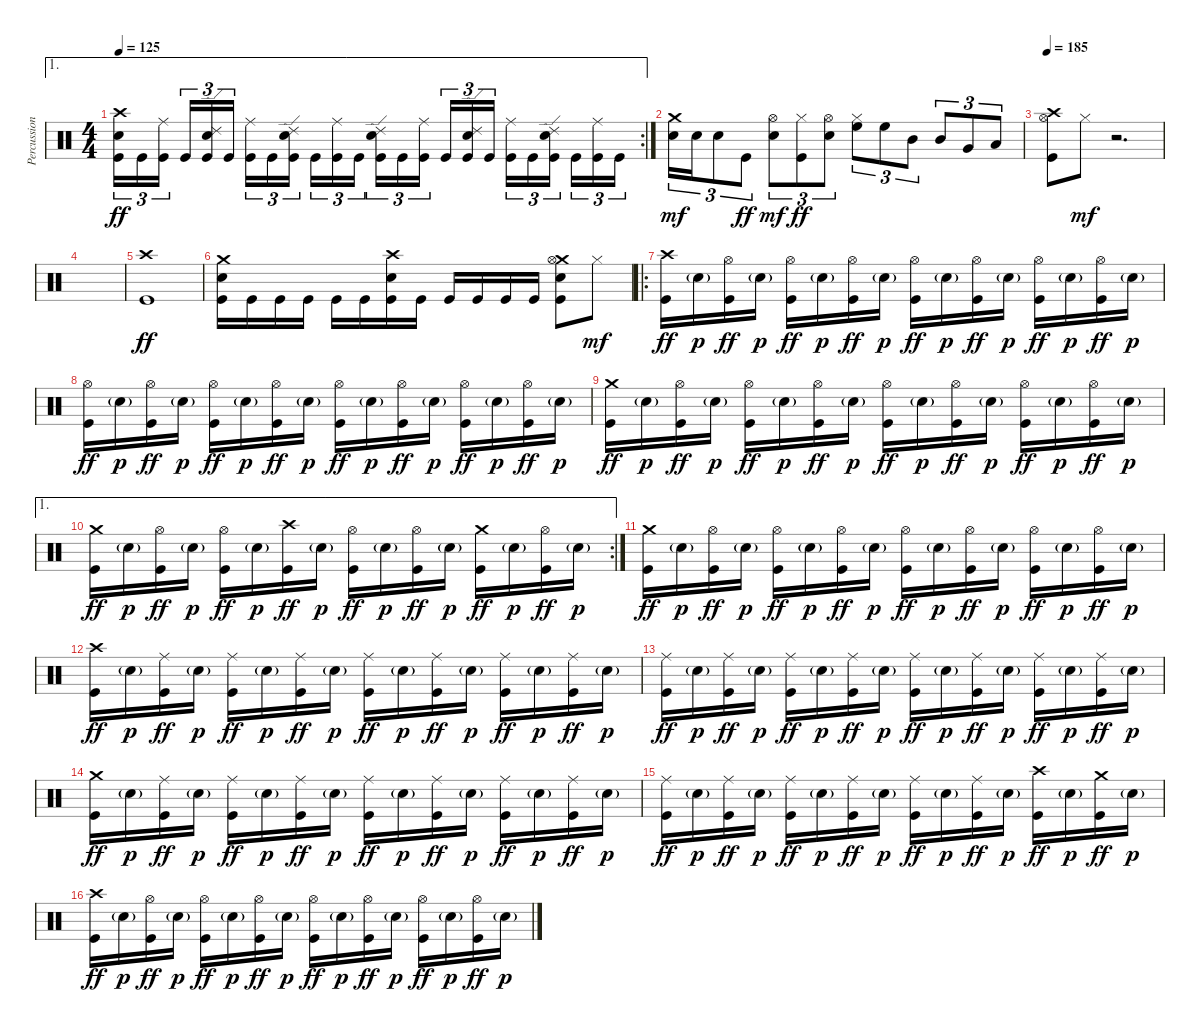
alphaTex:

\track ("Percussion" "Percussion") {instrument percussion}
\staff {score}
\articulation defaults
\ae 1
\rc 2
\ts (4 4)
\tempo 125
\clef neutral
\ks c
("Crash high (hit)" "Electric Snare (hit)" "Kick (hit)").16{tu (3 2) dy ff} "Kick (hit)".16{tu (3 2)} ("Ride (middle)" "Kick (hit)").16{tu (3 2) beam splitsecondary} "Kick (hit)".16{tu (3 2)} ("Ride (edge) 2" "Electric Snare (hit)" "Kick (hit)").16{tu (3 2)} "Kick (hit)".16{tu (3 2)} ("Ride (middle)" "Kick (hit)").16{tu (3 2)} "Kick (hit)".16{tu (3 2)} ("Ride (edge) 2" "Electric Snare (hit)" "Kick (hit)").16{tu (3 2) beam splitsecondary} "Kick (hit)".16{tu (3 2)} ("Ride (middle)" "Kick (hit)").16{tu (3 2)} "Kick (hit)".16{tu (3 2)} ("Ride (edge) 2" "Electric Snare (hit)" "Kick (hit)").16{tu (3 2)} "Kick (hit)".16{tu (3 2)} ("Ride (middle)" "Kick (hit)").16{tu (3 2) beam splitsecondary} "Kick (hit)".16{tu (3 2)} ("Ride (edge) 2" "Electric Snare (hit)" "Kick (hit)").16{tu (3 2)} "Kick (hit)".16{tu (3 2)} ("Ride (middle)" "Kick (hit)").16{tu (3 2)} "Kick (hit)".16{tu (3 2)} ("Ride (edge) 2" "Electric Snare (hit)" "Kick (hit)").16{tu (3 2) beam splitsecondary} "Kick (hit)".16{tu (3 2)} ("Ride (middle)" "Kick (hit)").16{tu (3 2)} "Kick (hit)".16{tu (3 2)} |
("Crash medium (hit)" "Electric Snare (hit)").16{tu (3 2) dy mf} "Electric Snare (hit)".16{tu (3 2)} "Electric Snare (hit)".8{tu (3 2)} "Kick (hit)".8{tu (3 2) dy ff} ("Hi-Hat (open)" "Electric Snare (hit)").8{tu (3 2) dy mf} ("Hi-Hat (closed)" "Kick (hit)").8{tu (3 2) dy ff} ("Hi-Hat (open)" "Electric Snare (hit)").8{tu (3 2)} ("Hi-Hat (closed)" "High Floor Tom (hit)").8{tu (3 2)} "High Floor Tom (hit)".8{tu (3 2)} "Mid Tom (hit)".8{tu (3 2)} "Mid Tom (hit)".8{tu (3 2)} "Very Low Tom (hit)".8{tu (3 2)} "Low Floor Tom (hit)".8{tu (3 2)} |
\tempo 185
("Crash high (hit)" "Hi-Hat (open)" "Kick (hit)").8 "Hi-Hat (closed)".8{dy mf} r.2{d} |
|
("Crash high (hit)" "Kick (hit)").1{dy ff} |
("Crash medium (hit)" "Electric Snare (hit)" "Kick (hit)").16 "Kick (hit)".16 "Kick (hit)".16 "Kick (hit)".16 "Kick (hit)".16 "Kick (hit)".16 ("Crash high (hit)" "Electric Snare (hit)" "Kick (hit)").16 "Kick (hit)".16 "Kick (hit)".16 "Kick (hit)".16 "Kick (hit)".16 "Kick (hit)".16 ("Crash medium (hit)" "Hi-Hat (open)" "Electric Snare (hit)" "Kick (hit)").8 "Hi-Hat (closed)".8{dy mf} |
\ro
("Crash high (hit)" "Kick (hit)").16{dy ff} "Electric Snare (hit)"{g}.16{dy p} ("Hi-Hat (open)" "Kick (hit)").16{dy ff} "Electric Snare (hit)"{g}.16{dy p} ("Hi-Hat (open)" "Kick (hit)").16{dy ff} "Electric Snare (hit)"{g}.16{dy p} ("Hi-Hat (open)" "Kick (hit)").16{dy ff} "Electric Snare (hit)"{g}.16{dy p} ("Hi-Hat (open)" "Kick (hit)").16{dy ff} "Electric Snare (hit)"{g}.16{dy p} ("Hi-Hat (open)" "Kick (hit)").16{dy ff} "Electric Snare (hit)"{g}.16{dy p} ("Hi-Hat (open)" "Kick (hit)").16{dy ff} "Electric Snare (hit)"{g}.16{dy p} ("Hi-Hat (open)" "Kick (hit)").16{dy ff} "Electric Snare (hit)"{g}.16{dy p} |
("Hi-Hat (open)" "Kick (hit)").16{dy ff} "Electric Snare (hit)"{g}.16{dy p} ("Hi-Hat (open)" "Kick (hit)").16{dy ff} "Electric Snare (hit)"{g}.16{dy p} ("Hi-Hat (open)" "Kick (hit)").16{dy ff} "Electric Snare (hit)"{g}.16{dy p} ("Hi-Hat (open)" "Kick (hit)").16{dy ff} "Electric Snare (hit)"{g}.16{dy p} ("Hi-Hat (open)" "Kick (hit)").16{dy ff} "Electric Snare (hit)"{g}.16{dy p} ("Hi-Hat (open)" "Kick (hit)").16{dy ff} "Electric Snare (hit)"{g}.16{dy p} ("Hi-Hat (open)" "Kick (hit)").16{dy ff} "Electric Snare (hit)"{g}.16{dy p} ("Hi-Hat (open)" "Kick (hit)").16{dy ff} "Electric Snare (hit)"{g}.16{dy p} |
("Crash medium (hit)" "Kick (hit)").16{dy ff} "Electric Snare (hit)"{g}.16{dy p} ("Hi-Hat (open)" "Kick (hit)").16{dy ff} "Electric Snare (hit)"{g}.16{dy p} ("Hi-Hat (open)" "Kick (hit)").16{dy ff} "Electric Snare (hit)"{g}.16{dy p} ("Hi-Hat (open)" "Kick (hit)").16{dy ff} "Electric Snare (hit)"{g}.16{dy p} ("Hi-Hat (open)" "Kick (hit)").16{dy ff} "Electric Snare (hit)"{g}.16{dy p} ("Hi-Hat (open)" "Kick (hit)").16{dy ff} "Electric Snare (hit)"{g}.16{dy p} ("Hi-Hat (open)" "Kick (hit)").16{dy ff} "Electric Snare (hit)"{g}.16{dy p} ("Hi-Hat (open)" "Kick (hit)").16{dy ff} "Electric Snare (hit)"{g}.16{dy p} |
\ae 1
\rc 2
("Crash medium (hit)" "Kick (hit)").16{dy ff} "Electric Snare (hit)"{g}.16{dy p} ("Hi-Hat (open)" "Kick (hit)").16{dy ff} "Electric Snare (hit)"{g}.16{dy p} ("Hi-Hat (open)" "Kick (hit)").16{dy ff} "Electric Snare (hit)"{g}.16{dy p} ("Crash high (hit)" "Kick (hit)").16{dy ff} "Electric Snare (hit)"{g}.16{dy p} ("Hi-Hat (open)" "Kick (hit)").16{dy ff} "Electric Snare (hit)"{g}.16{dy p} ("Hi-Hat (open)" "Kick (hit)").16{dy ff} "Electric Snare (hit)"{g}.16{dy p} ("Crash medium (hit)" "Kick (hit)").16{dy ff} "Electric Snare (hit)"{g}.16{dy p} ("Hi-Hat (open)" "Kick (hit)").16{dy ff} "Electric Snare (hit)"{g}.16{dy p} |
("Crash medium (hit)" "Kick (hit)").16{dy ff} "Electric Snare (hit)"{g}.16{dy p} ("Hi-Hat (open)" "Kick (hit)").16{dy ff} "Electric Snare (hit)"{g}.16{dy p} ("Hi-Hat (open)" "Kick (hit)").16{dy ff} "Electric Snare (hit)"{g}.16{dy p} ("Hi-Hat (open)" "Kick (hit)").16{dy ff} "Electric Snare (hit)"{g}.16{dy p} ("Hi-Hat (open)" "Kick (hit)").16{dy ff} "Electric Snare (hit)"{g}.16{dy p} ("Hi-Hat (open)" "Kick (hit)").16{dy ff} "Electric Snare (hit)"{g}.16{dy p} ("Hi-Hat (open)" "Kick (hit)").16{dy ff} "Electric Snare (hit)"{g}.16{dy p} ("Hi-Hat (open)" "Kick (hit)").16{dy ff} "Electric Snare (hit)"{g}.16{dy p} |
("Crash high (hit)" "Kick (hit)").16{dy ff} "Electric Snare (hit)"{g}.16{dy p} ("Ride (middle)" "Kick (hit)").16{dy ff} "Electric Snare (hit)"{g}.16{dy p} ("Ride (middle)" "Kick (hit)").16{dy ff} "Electric Snare (hit)"{g}.16{dy p} ("Ride (middle)" "Kick (hit)").16{dy ff} "Electric Snare (hit)"{g}.16{dy p} ("Ride (middle)" "Kick (hit)").16{dy ff} "Electric Snare (hit)"{g}.16{dy p} ("Ride (middle)" "Kick (hit)").16{dy ff} "Electric Snare (hit)"{g}.16{dy p} ("Ride (middle)" "Kick (hit)").16{dy ff} "Electric Snare (hit)"{g}.16{dy p} ("Ride (middle)" "Kick (hit)").16{dy ff} "Electric Snare (hit)"{g}.16{dy p} |
("Ride (middle)" "Kick (hit)").16{dy ff} "Electric Snare (hit)"{g}.16{dy p} ("Ride (middle)" "Kick (hit)").16{dy ff} "Electric Snare (hit)"{g}.16{dy p} ("Ride (middle)" "Kick (hit)").16{dy ff} "Electric Snare (hit)"{g}.16{dy p} ("Ride (middle)" "Kick (hit)").16{dy ff} "Electric Snare (hit)"{g}.16{dy p} ("Ride (middle)" "Kick (hit)").16{dy ff} "Electric Snare (hit)"{g}.16{dy p} ("Ride (middle)" "Kick (hit)").16{dy ff} "Electric Snare (hit)"{g}.16{dy p} ("Ride (middle)" "Kick (hit)").16{dy ff} "Electric Snare (hit)"{g}.16{dy p} ("Ride (middle)" "Kick (hit)").16{dy ff} "Electric Snare (hit)"{g}.16{dy p} |
("Crash medium (hit)" "Kick (hit)").16{dy ff} "Electric Snare (hit)"{g}.16{dy p} ("Ride (middle)" "Kick (hit)").16{dy ff} "Electric Snare (hit)"{g}.16{dy p} ("Ride (middle)" "Kick (hit)").16{dy ff} "Electric Snare (hit)"{g}.16{dy p} ("Ride (middle)" "Kick (hit)").16{dy ff} "Electric Snare (hit)"{g}.16{dy p} ("Ride (middle)" "Kick (hit)").16{dy ff} "Electric Snare (hit)"{g}.16{dy p} ("Ride (middle)" "Kick (hit)").16{dy ff} "Electric Snare (hit)"{g}.16{dy p} ("Ride (middle)" "Kick (hit)").16{dy ff} "Electric Snare (hit)"{g}.16{dy p} ("Ride (middle)" "Kick (hit)").16{dy ff} "Electric Snare (hit)"{g}.16{dy p} |
("Ride (middle)" "Kick (hit)").16{dy ff} "Electric Snare (hit)"{g}.16{dy p} ("Ride (middle)" "Kick (hit)").16{dy ff} "Electric Snare (hit)"{g}.16{dy p} ("Ride (middle)" "Kick (hit)").16{dy ff} "Electric Snare (hit)"{g}.16{dy p} ("Ride (middle)" "Kick (hit)").16{dy ff} "Electric Snare (hit)"{g}.16{dy p} ("Ride (middle)" "Kick (hit)").16{dy ff} "Electric Snare (hit)"{g}.16{dy p} ("Ride (middle)" "Kick (hit)").16{dy ff} "Electric Snare (hit)"{g}.16{dy p} ("Crash high (hit)" "Kick (hit)").16{dy ff} "Electric Snare (hit)"{g}.16{dy p} ("Crash medium (hit)" "Kick (hit)").16{dy ff} "Electric Snare (hit)"{g}.16{dy p} |
("Crash high (hit)" "Kick (hit)").16{dy ff} "Electric Snare (hit)"{g}.16{dy p} ("Hi-Hat (open)" "Kick (hit)").16{dy ff} "Electric Snare (hit)"{g}.16{dy p} ("Hi-Hat (open)" "Kick (hit)").16{dy ff} "Electric Snare (hit)"{g}.16{dy p} ("Hi-Hat (open)" "Kick (hit)").16{dy ff} "Electric Snare (hit)"{g}.16{dy p} ("Hi-Hat (open)" "Kick (hit)").16{dy ff} "Electric Snare (hit)"{g}.16{dy p} ("Hi-Hat (open)" "Kick (hit)").16{dy ff} "Electric Snare (hit)"{g}.16{dy p} ("Hi-Hat (open)" "Kick (hit)").16{dy ff} "Electric Snare (hit)"{g}.16{dy p} ("Hi-Hat (open)" "Kick (hit)").16{dy ff} "Electric Snare (hit)"{g}.16{dy p}
